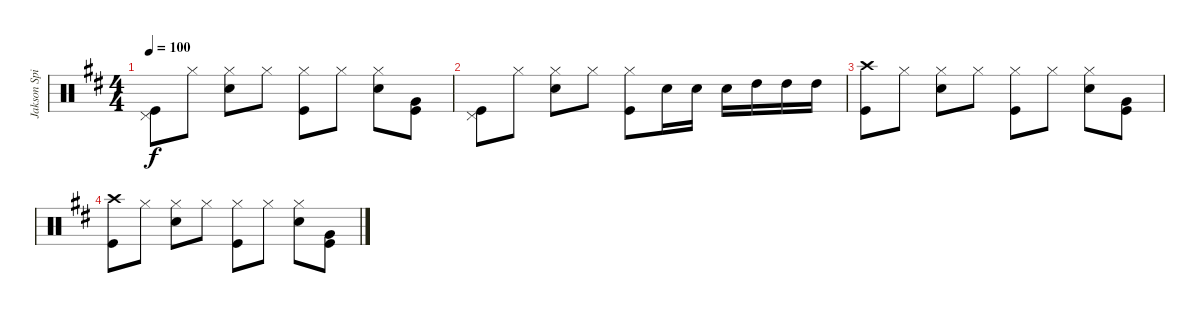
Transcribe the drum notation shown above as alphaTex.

\track ("Jakson Spires Drums" "Jakson Spi") {instrument percussion}
\staff {score}
\articulation defaults
\ts (4 4)
\tempo 100
\clef neutral
\ks d
("Pedal Hi-Hat (hit)" "Kick (hit)").8{dy f} "Hi-Hat (closed)".8 ("Hi-Hat (closed)" "Snare (hit) 2").8{volume 2} "Hi-Hat (closed)".8 ("Hi-Hat (closed)" "Kick (hit)").8 "Hi-Hat (closed)".8 ("Hi-Hat (closed)" "Snare (hit) 2").8 ("Very Low Tom (hit)" "Kick (hit)").8 |
("Pedal Hi-Hat (hit)" "Kick (hit)").8 "Hi-Hat (closed)".8 ("Hi-Hat (closed)" "Snare (hit) 2").8 "Hi-Hat (closed)".8 ("Hi-Hat (closed)" "Kick (hit)").8 "Snare (hit) 2".16 "Snare (hit) 2".16 "Snare (hit) 2".16 "High Tom (hit)".16 "High Tom (hit)".16 "High Tom (hit)".16 |
("Crash high (hit)" "Kick (hit)").8 "Hi-Hat (closed)".8 ("Hi-Hat (closed)" "Snare (hit) 2").8 "Hi-Hat (closed)".8 ("Hi-Hat (closed)" "Kick (hit)").8 "Hi-Hat (closed)".8 ("Hi-Hat (closed)" "Snare (hit) 2").8 ("Very Low Tom (hit)" "Kick (hit)").8 |
("Crash high (hit)" "Kick (hit)").8 "Hi-Hat (closed)".8 ("Hi-Hat (closed)" "Snare (hit) 2").8 "Hi-Hat (closed)".8 ("Hi-Hat (closed)" "Kick (hit)").8 "Hi-Hat (closed)".8 ("Hi-Hat (closed)" "Snare (hit) 2").8 ("Very Low Tom (hit)" "Kick (hit)").8
